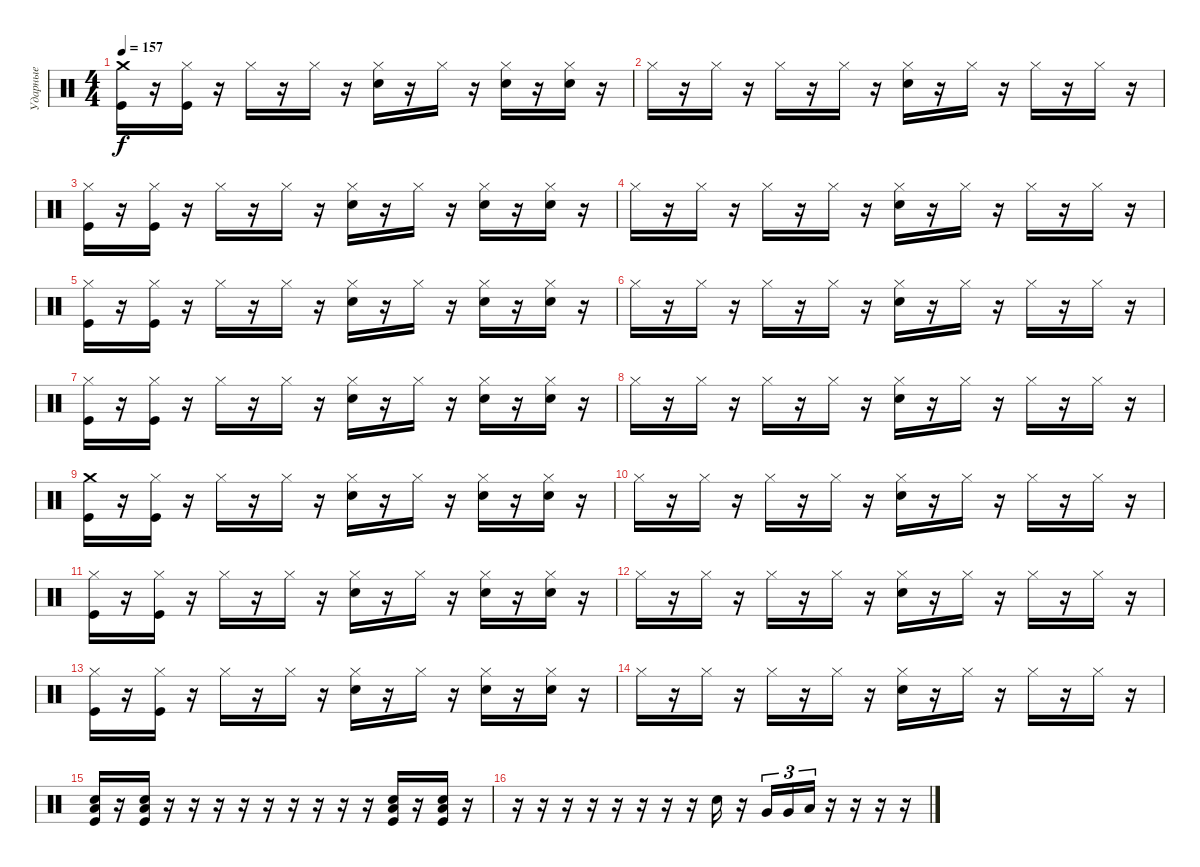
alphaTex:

\track ("Ударные" "Ударные") {instrument percussion}
\staff {score}
\articulation defaults
\ts (4 4)
\tempo 157
\clef neutral
\ks c
("Crash medium (hit)" "Kick (hit)").16{dy f} r.16 ("Hi-Hat (closed)" "Kick (hit)").16 r.16 "Hi-Hat (closed)".16 r.16 "Hi-Hat (closed)".16 r.16 ("Hi-Hat (closed)" "Electric Snare (hit)").16 r.16 "Hi-Hat (closed)".16 r.16 ("Hi-Hat (closed)" "Electric Snare (hit)").16 r.16 ("Hi-Hat (closed)" "Electric Snare (hit)").16 r.16 |
"Hi-Hat (closed)".16 r.16 "Hi-Hat (closed)".16 r.16 "Hi-Hat (closed)".16 r.16 "Hi-Hat (closed)".16 r.16 ("Hi-Hat (closed)" "Electric Snare (hit)").16 r.16 "Hi-Hat (closed)".16 r.16 "Hi-Hat (closed)".16 r.16 "Hi-Hat (closed)".16 r.16 |
("Hi-Hat (closed)" "Kick (hit)").16 r.16 ("Hi-Hat (closed)" "Kick (hit)").16 r.16 "Hi-Hat (closed)".16 r.16 "Hi-Hat (closed)".16 r.16 ("Hi-Hat (closed)" "Electric Snare (hit)").16 r.16 "Hi-Hat (closed)".16 r.16 ("Hi-Hat (closed)" "Electric Snare (hit)").16 r.16 ("Hi-Hat (closed)" "Electric Snare (hit)").16 r.16 |
"Hi-Hat (closed)".16 r.16 "Hi-Hat (closed)".16 r.16 "Hi-Hat (closed)".16 r.16 "Hi-Hat (closed)".16 r.16 ("Hi-Hat (closed)" "Electric Snare (hit)").16 r.16 "Hi-Hat (closed)".16 r.16 "Hi-Hat (closed)".16 r.16 "Hi-Hat (closed)".16 r.16 |
("Hi-Hat (closed)" "Kick (hit)").16 r.16 ("Hi-Hat (closed)" "Kick (hit)").16 r.16 "Hi-Hat (closed)".16 r.16 "Hi-Hat (closed)".16 r.16 ("Hi-Hat (closed)" "Electric Snare (hit)").16 r.16 "Hi-Hat (closed)".16 r.16 ("Hi-Hat (closed)" "Electric Snare (hit)").16 r.16 ("Hi-Hat (closed)" "Electric Snare (hit)").16 r.16 |
"Hi-Hat (closed)".16 r.16 "Hi-Hat (closed)".16 r.16 "Hi-Hat (closed)".16 r.16 "Hi-Hat (closed)".16 r.16 ("Hi-Hat (closed)" "Electric Snare (hit)").16 r.16 "Hi-Hat (closed)".16 r.16 "Hi-Hat (closed)".16 r.16 "Hi-Hat (closed)".16 r.16 |
("Hi-Hat (closed)" "Kick (hit)").16 r.16 ("Hi-Hat (closed)" "Kick (hit)").16 r.16 "Hi-Hat (closed)".16 r.16 "Hi-Hat (closed)".16 r.16 ("Hi-Hat (closed)" "Electric Snare (hit)").16 r.16 "Hi-Hat (closed)".16 r.16 ("Hi-Hat (closed)" "Electric Snare (hit)").16 r.16 ("Hi-Hat (closed)" "Electric Snare (hit)").16 r.16 |
"Hi-Hat (closed)".16 r.16 "Hi-Hat (closed)".16 r.16 "Hi-Hat (closed)".16 r.16 "Hi-Hat (closed)".16 r.16 ("Hi-Hat (closed)" "Electric Snare (hit)").16 r.16 "Hi-Hat (closed)".16 r.16 "Hi-Hat (closed)".16 r.16 "Hi-Hat (closed)".16 r.16 |
("Crash medium (hit)" "Kick (hit)").16 r.16 ("Hi-Hat (closed)" "Kick (hit)").16 r.16 "Hi-Hat (closed)".16 r.16 "Hi-Hat (closed)".16 r.16 ("Hi-Hat (closed)" "Electric Snare (hit)").16 r.16 "Hi-Hat (closed)".16 r.16 ("Hi-Hat (closed)" "Electric Snare (hit)").16 r.16 ("Hi-Hat (closed)" "Electric Snare (hit)").16 r.16 |
"Hi-Hat (closed)".16 r.16 "Hi-Hat (closed)".16 r.16 "Hi-Hat (closed)".16 r.16 "Hi-Hat (closed)".16 r.16 ("Hi-Hat (closed)" "Electric Snare (hit)").16 r.16 "Hi-Hat (closed)".16 r.16 "Hi-Hat (closed)".16 r.16 "Hi-Hat (closed)".16 r.16 |
("Hi-Hat (closed)" "Kick (hit)").16 r.16 ("Hi-Hat (closed)" "Kick (hit)").16 r.16 "Hi-Hat (closed)".16 r.16 "Hi-Hat (closed)".16 r.16 ("Hi-Hat (closed)" "Electric Snare (hit)").16 r.16 "Hi-Hat (closed)".16 r.16 ("Hi-Hat (closed)" "Electric Snare (hit)").16 r.16 ("Hi-Hat (closed)" "Electric Snare (hit)").16 r.16 |
"Hi-Hat (closed)".16 r.16 "Hi-Hat (closed)".16 r.16 "Hi-Hat (closed)".16 r.16 "Hi-Hat (closed)".16 r.16 ("Hi-Hat (closed)" "Electric Snare (hit)").16 r.16 "Hi-Hat (closed)".16 r.16 "Hi-Hat (closed)".16 r.16 "Hi-Hat (closed)".16 r.16 |
("Hi-Hat (closed)" "Kick (hit)").16 r.16 ("Hi-Hat (closed)" "Kick (hit)").16 r.16 "Hi-Hat (closed)".16 r.16 "Hi-Hat (closed)".16 r.16 ("Hi-Hat (closed)" "Electric Snare (hit)").16 r.16 "Hi-Hat (closed)".16 r.16 ("Hi-Hat (closed)" "Electric Snare (hit)").16 r.16 ("Hi-Hat (closed)" "Electric Snare (hit)").16 r.16 |
"Hi-Hat (closed)".16 r.16 "Hi-Hat (closed)".16 r.16 "Hi-Hat (closed)".16 r.16 "Hi-Hat (closed)".16 r.16 ("Hi-Hat (closed)" "Electric Snare (hit)").16 r.16 "Hi-Hat (closed)".16 r.16 "Hi-Hat (closed)".16 r.16 "Hi-Hat (closed)".16 r.16 |
("Low Floor Tom (hit)" "Electric Snare (hit)" "Kick (hit)").16 r.16 ("Low Floor Tom (hit)" "Electric Snare (hit)" "Kick (hit)").16 r.16 r.16 r.16 r.16 r.16 r.16 r.16 r.16 r.16 ("Low Floor Tom (hit)" "Electric Snare (hit)" "Kick (hit)").16 r.16 ("Low Floor Tom (hit)" "Electric Snare (hit)" "Kick (hit)").16 r.16 |
r.16 r.16 r.16 r.16 r.16 r.16 r.16 r.16 "Electric Snare (hit)".16 r.16 "Very Low Tom (hit)".16{tu (3 2)} "Very Low Tom (hit)".16{tu (3 2)} "Low Floor Tom (hit)".16{tu (3 2)} r.16 r.16 r.16 r.16
